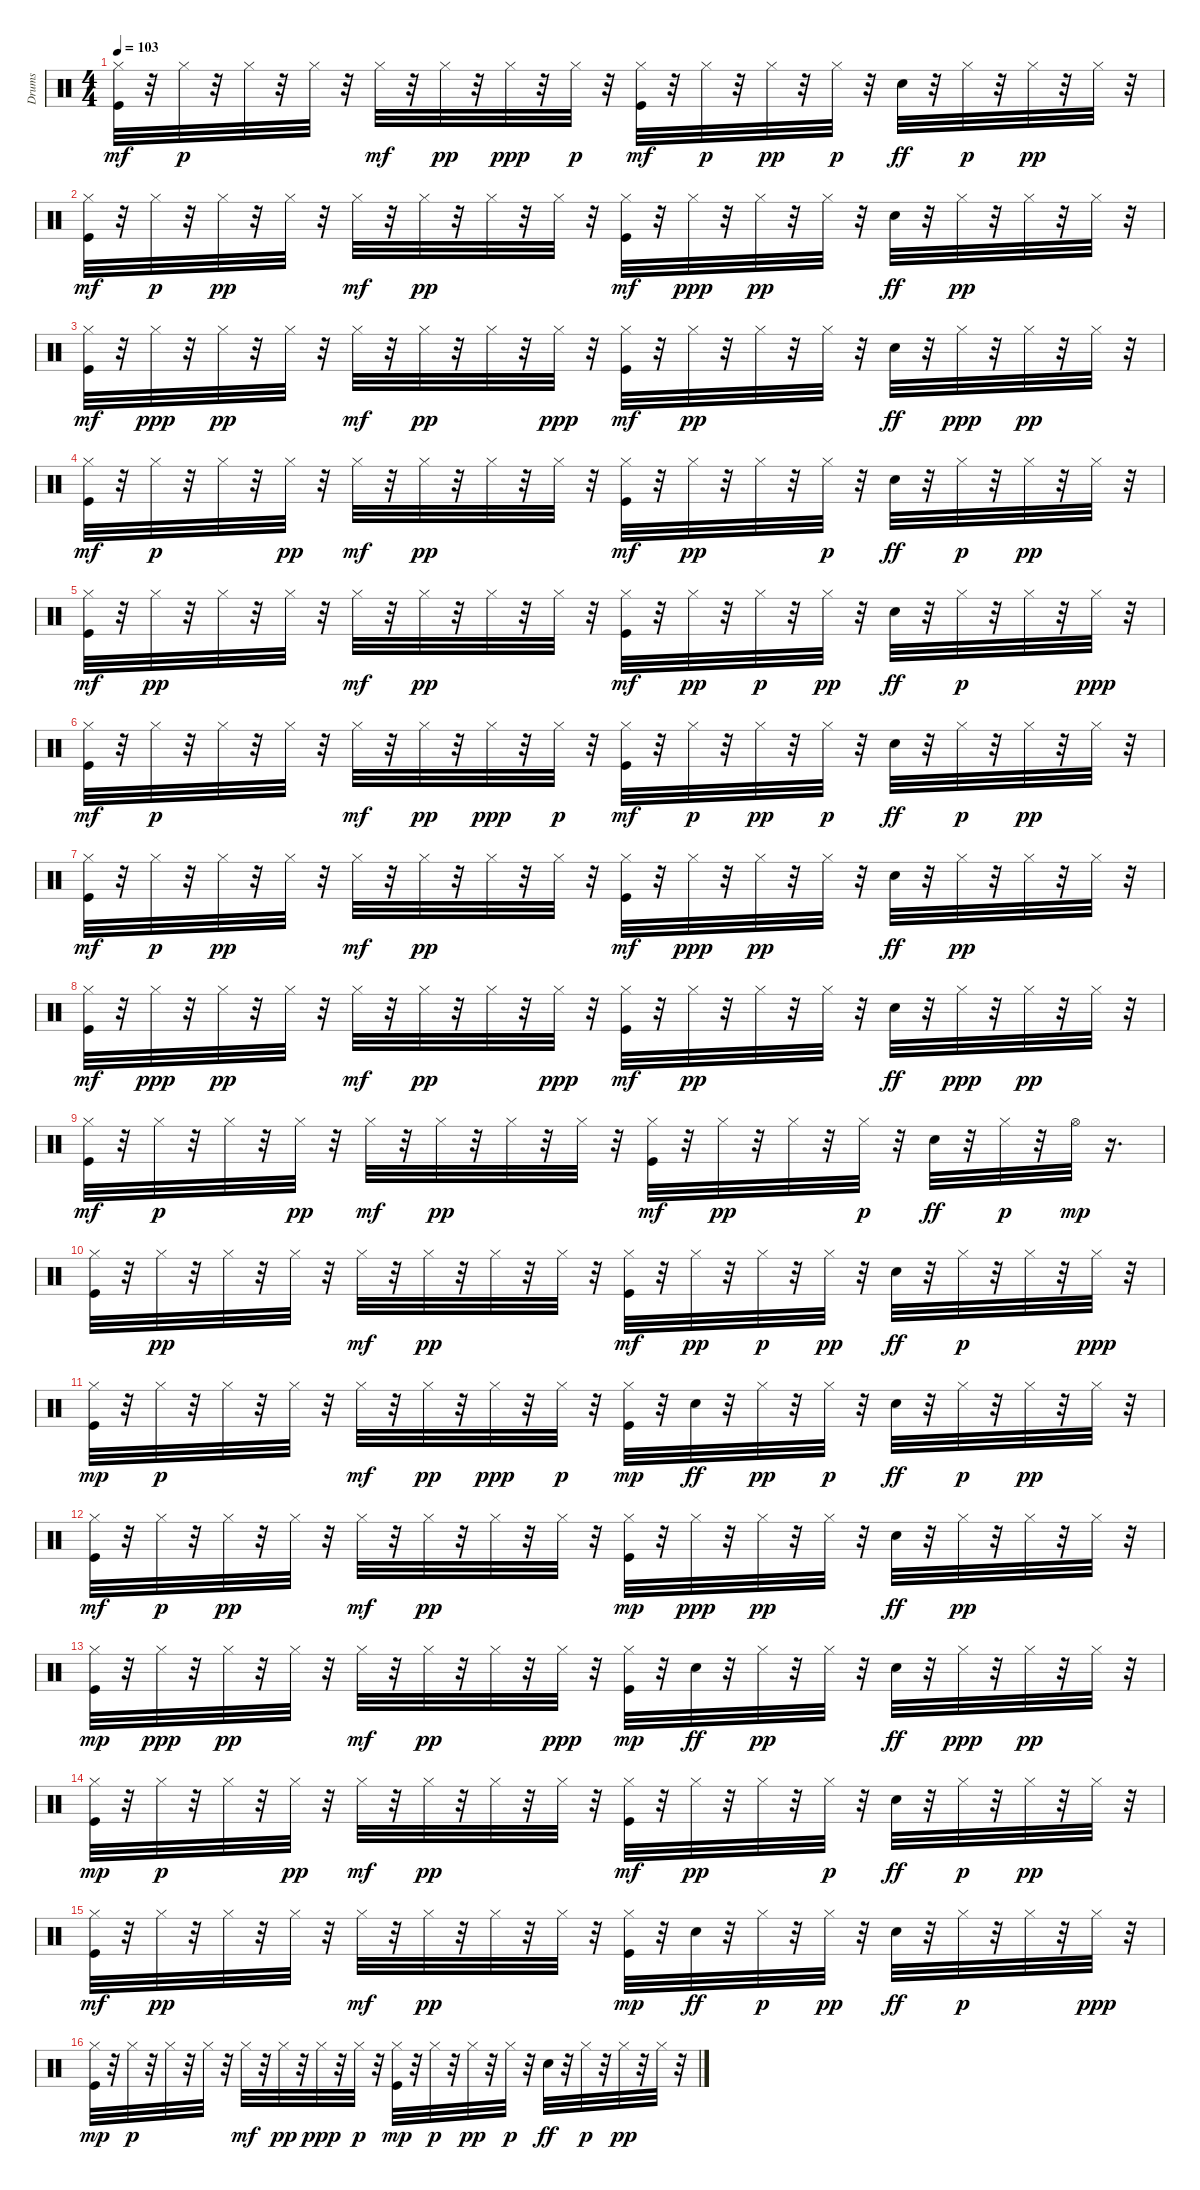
\track ("Drums" "Drums") {instrument percussion}
\staff {score}
\articulation defaults
\ts (4 4)
\tempo 103
\clef neutral
\ks c
("Kick (hit)" "Hi-Hat (closed)").32{dy mf} r.32 "Hi-Hat (closed)".32{dy p} r.32 "Hi-Hat (closed)".32 r.32 "Hi-Hat (closed)".32 r.32 "Hi-Hat (closed)".32{dy mf} r.32 "Hi-Hat (closed)".32{dy pp} r.32 "Hi-Hat (closed)".32{dy ppp} r.32 "Hi-Hat (closed)".32{dy p} r.32 ("Hi-Hat (closed)" "Kick (hit)").32{dy mf} r.32 "Hi-Hat (closed)".32{dy p} r.32 "Hi-Hat (closed)".32{dy pp} r.32 "Hi-Hat (closed)".32{dy p} r.32 "Snare (hit) 2".32{dy ff} r.32 "Hi-Hat (closed)".32{dy p} r.32 "Hi-Hat (closed)".32{dy pp} r.32 "Hi-Hat (closed)".32 r.32 |
("Kick (hit)" "Hi-Hat (closed)").32{dy mf} r.32 "Hi-Hat (closed)".32{dy p} r.32 "Hi-Hat (closed)".32{dy pp} r.32 "Hi-Hat (closed)".32 r.32 "Hi-Hat (closed)".32{dy mf} r.32 "Hi-Hat (closed)".32{dy pp} r.32 "Hi-Hat (closed)".32 r.32 "Hi-Hat (closed)".32 r.32 ("Hi-Hat (closed)" "Kick (hit)").32{dy mf} r.32 "Hi-Hat (closed)".32{dy ppp} r.32 "Hi-Hat (closed)".32{dy pp} r.32 "Hi-Hat (closed)".32 r.32 "Snare (hit) 2".32{dy ff} r.32 "Hi-Hat (closed)".32{dy pp} r.32 "Hi-Hat (closed)".32 r.32 "Hi-Hat (closed)".32 r.32 |
("Hi-Hat (closed)" "Kick (hit)").32{dy mf} r.32 "Hi-Hat (closed)".32{dy ppp} r.32 "Hi-Hat (closed)".32{dy pp} r.32 "Hi-Hat (closed)".32 r.32 "Hi-Hat (closed)".32{dy mf} r.32 "Hi-Hat (closed)".32{dy pp} r.32 "Hi-Hat (closed)".32 r.32 "Hi-Hat (closed)".32{dy ppp} r.32 ("Hi-Hat (closed)" "Kick (hit)").32{dy mf} r.32 "Hi-Hat (closed)".32{dy pp} r.32 "Hi-Hat (closed)".32 r.32 "Hi-Hat (closed)".32 r.32 "Snare (hit) 2".32{dy ff} r.32 "Hi-Hat (closed)".32{dy ppp} r.32 "Hi-Hat (closed)".32{dy pp} r.32 "Hi-Hat (closed)".32 r.32 |
("Kick (hit)" "Hi-Hat (closed)").32{dy mf} r.32 "Hi-Hat (closed)".32{dy p} r.32 "Hi-Hat (closed)".32 r.32 "Hi-Hat (closed)".32{dy pp} r.32 "Hi-Hat (closed)".32{dy mf} r.32 "Hi-Hat (closed)".32{dy pp} r.32 "Hi-Hat (closed)".32 r.32 "Hi-Hat (closed)".32 r.32 ("Kick (hit)" "Hi-Hat (closed)").32{dy mf} r.32 "Hi-Hat (closed)".32{dy pp} r.32 "Hi-Hat (closed)".32 r.32 "Hi-Hat (closed)".32{dy p} r.32 "Snare (hit) 2".32{dy ff} r.32 "Hi-Hat (closed)".32{dy p} r.32 "Hi-Hat (closed)".32{dy pp} r.32 "Hi-Hat (closed)".32 r.32 |
("Hi-Hat (closed)" "Kick (hit)").32{dy mf} r.32 "Hi-Hat (closed)".32{dy pp} r.32 "Hi-Hat (closed)".32 r.32 "Hi-Hat (closed)".32 r.32 "Hi-Hat (closed)".32{dy mf} r.32 "Hi-Hat (closed)".32{dy pp} r.32 "Hi-Hat (closed)".32 r.32 "Hi-Hat (closed)".32 r.32 ("Hi-Hat (closed)" "Kick (hit)").32{dy mf} r.32 "Hi-Hat (closed)".32{dy pp} r.32 "Hi-Hat (closed)".32{dy p} r.32 "Hi-Hat (closed)".32{dy pp} r.32 "Snare (hit) 2".32{dy ff} r.32 "Hi-Hat (closed)".32{dy p} r.32 "Hi-Hat (closed)".32 r.32 "Hi-Hat (closed)".32{dy ppp} r.32 |
("Hi-Hat (closed)" "Kick (hit)").32{dy mf} r.32 "Hi-Hat (closed)".32{dy p} r.32 "Hi-Hat (closed)".32 r.32 "Hi-Hat (closed)".32 r.32 "Hi-Hat (closed)".32{dy mf} r.32 "Hi-Hat (closed)".32{dy pp} r.32 "Hi-Hat (closed)".32{dy ppp} r.32 "Hi-Hat (closed)".32{dy p} r.32 ("Hi-Hat (closed)" "Kick (hit)").32{dy mf} r.32 "Hi-Hat (closed)".32{dy p} r.32 "Hi-Hat (closed)".32{dy pp} r.32 "Hi-Hat (closed)".32{dy p} r.32 "Snare (hit) 2".32{dy ff} r.32 "Hi-Hat (closed)".32{dy p} r.32 "Hi-Hat (closed)".32{dy pp} r.32 "Hi-Hat (closed)".32 r.32 |
("Kick (hit)" "Hi-Hat (closed)").32{dy mf} r.32 "Hi-Hat (closed)".32{dy p} r.32 "Hi-Hat (closed)".32{dy pp} r.32 "Hi-Hat (closed)".32 r.32 "Hi-Hat (closed)".32{dy mf} r.32 "Hi-Hat (closed)".32{dy pp} r.32 "Hi-Hat (closed)".32 r.32 "Hi-Hat (closed)".32 r.32 ("Hi-Hat (closed)" "Kick (hit)").32{dy mf} r.32 "Hi-Hat (closed)".32{dy ppp} r.32 "Hi-Hat (closed)".32{dy pp} r.32 "Hi-Hat (closed)".32 r.32 "Snare (hit) 2".32{dy ff} r.32 "Hi-Hat (closed)".32{dy pp} r.32 "Hi-Hat (closed)".32 r.32 "Hi-Hat (closed)".32 r.32 |
("Hi-Hat (closed)" "Kick (hit)").32{dy mf} r.32 "Hi-Hat (closed)".32{dy ppp} r.32 "Hi-Hat (closed)".32{dy pp} r.32 "Hi-Hat (closed)".32 r.32 "Hi-Hat (closed)".32{dy mf} r.32 "Hi-Hat (closed)".32{dy pp} r.32 "Hi-Hat (closed)".32 r.32 "Hi-Hat (closed)".32{dy ppp} r.32 ("Hi-Hat (closed)" "Kick (hit)").32{dy mf} r.32 "Hi-Hat (closed)".32{dy pp} r.32 "Hi-Hat (closed)".32 r.32 "Hi-Hat (closed)".32 r.32 "Snare (hit) 2".32{dy ff} r.32 "Hi-Hat (closed)".32{dy ppp} r.32 "Hi-Hat (closed)".32{dy pp} r.32 "Hi-Hat (closed)".32 r.32 |
("Hi-Hat (closed)" "Kick (hit)").32{dy mf} r.32 "Hi-Hat (closed)".32{dy p} r.32 "Hi-Hat (closed)".32 r.32 "Hi-Hat (closed)".32{dy pp} r.32 "Hi-Hat (closed)".32{dy mf} r.32 "Hi-Hat (closed)".32{dy pp} r.32 "Hi-Hat (closed)".32 r.32 "Hi-Hat (closed)".32 r.32 ("Hi-Hat (closed)" "Kick (hit)").32{dy mf} r.32 "Hi-Hat (closed)".32{dy pp} r.32 "Hi-Hat (closed)".32 r.32 "Hi-Hat (closed)".32{dy p} r.32 "Snare (hit) 2".32{dy ff} r.32 "Hi-Hat (closed)".32{dy p} r.32 "Hi-Hat (open)".32{dy mp} r.16{d} |
("Hi-Hat (closed)" "Kick (hit)").32 r.32 "Hi-Hat (closed)".32{dy pp} r.32 "Hi-Hat (closed)".32 r.32 "Hi-Hat (closed)".32 r.32 "Hi-Hat (closed)".32{dy mf} r.32 "Hi-Hat (closed)".32{dy pp} r.32 "Hi-Hat (closed)".32 r.32 "Hi-Hat (closed)".32 r.32 ("Hi-Hat (closed)" "Kick (hit)").32{dy mf} r.32 "Hi-Hat (closed)".32{dy pp} r.32 "Hi-Hat (closed)".32{dy p} r.32 "Hi-Hat (closed)".32{dy pp} r.32 "Snare (hit) 2".32{dy ff} r.32 "Hi-Hat (closed)".32{dy p} r.32 "Hi-Hat (closed)".32 r.32 "Hi-Hat (closed)".32{dy ppp} r.32 |
("Hi-Hat (closed)" "Kick (hit)").32{dy mp} r.32 "Hi-Hat (closed)".32{dy p} r.32 "Hi-Hat (closed)".32 r.32 "Hi-Hat (closed)".32 r.32 "Hi-Hat (closed)".32{dy mf} r.32 "Hi-Hat (closed)".32{dy pp} r.32 "Hi-Hat (closed)".32{dy ppp} r.32 "Hi-Hat (closed)".32{dy p} r.32 ("Hi-Hat (closed)" "Kick (hit)").32{dy mp} r.32 "Snare (hit) 2".32{dy ff} r.32 "Hi-Hat (closed)".32{dy pp} r.32 "Hi-Hat (closed)".32{dy p} r.32 "Snare (hit) 2".32{dy ff} r.32 "Hi-Hat (closed)".32{dy p} r.32 "Hi-Hat (closed)".32{dy pp} r.32 "Hi-Hat (closed)".32 r.32 |
("Hi-Hat (closed)" "Kick (hit)").32{dy mf} r.32 "Hi-Hat (closed)".32{dy p} r.32 "Hi-Hat (closed)".32{dy pp} r.32 "Hi-Hat (closed)".32 r.32 "Hi-Hat (closed)".32{dy mf} r.32 "Hi-Hat (closed)".32{dy pp} r.32 "Hi-Hat (closed)".32 r.32 "Hi-Hat (closed)".32 r.32 ("Hi-Hat (closed)" "Kick (hit)").32{dy mp} r.32 "Hi-Hat (closed)".32{dy ppp} r.32 "Hi-Hat (closed)".32{dy pp} r.32 "Hi-Hat (closed)".32 r.32 "Snare (hit) 2".32{dy ff} r.32 "Hi-Hat (closed)".32{dy pp} r.32 "Hi-Hat (closed)".32 r.32 "Hi-Hat (closed)".32 r.32 |
("Hi-Hat (closed)" "Kick (hit)").32{dy mp} r.32 "Hi-Hat (closed)".32{dy ppp} r.32 "Hi-Hat (closed)".32{dy pp} r.32 "Hi-Hat (closed)".32 r.32 "Hi-Hat (closed)".32{dy mf} r.32 "Hi-Hat (closed)".32{dy pp} r.32 "Hi-Hat (closed)".32 r.32 "Hi-Hat (closed)".32{dy ppp} r.32 ("Hi-Hat (closed)" "Kick (hit)").32{dy mp} r.32 "Snare (hit) 2".32{dy ff} r.32 "Hi-Hat (closed)".32{dy pp} r.32 "Hi-Hat (closed)".32 r.32 "Snare (hit) 2".32{dy ff} r.32 "Hi-Hat (closed)".32{dy ppp} r.32 "Hi-Hat (closed)".32{dy pp} r.32 "Hi-Hat (closed)".32 r.32 |
("Hi-Hat (closed)" "Kick (hit)").32{dy mp} r.32 "Hi-Hat (closed)".32{dy p} r.32 "Hi-Hat (closed)".32 r.32 "Hi-Hat (closed)".32{dy pp} r.32 "Hi-Hat (closed)".32{dy mf} r.32 "Hi-Hat (closed)".32{dy pp} r.32 "Hi-Hat (closed)".32 r.32 "Hi-Hat (closed)".32 r.32 ("Hi-Hat (closed)" "Kick (hit)").32{dy mf} r.32 "Hi-Hat (closed)".32{dy pp} r.32 "Hi-Hat (closed)".32 r.32 "Hi-Hat (closed)".32{dy p} r.32 "Snare (hit) 2".32{dy ff} r.32 "Hi-Hat (closed)".32{dy p} r.32 "Hi-Hat (closed)".32{dy pp} r.32 "Hi-Hat (closed)".32 r.32 |
("Kick (hit)" "Hi-Hat (closed)").32{dy mf} r.32 "Hi-Hat (closed)".32{dy pp} r.32 "Hi-Hat (closed)".32 r.32 "Hi-Hat (closed)".32 r.32 "Hi-Hat (closed)".32{dy mf} r.32 "Hi-Hat (closed)".32{dy pp} r.32 "Hi-Hat (closed)".32 r.32 "Hi-Hat (closed)".32 r.32 ("Hi-Hat (closed)" "Kick (hit)").32{dy mp} r.32 "Snare (hit) 2".32{dy ff} r.32 "Hi-Hat (closed)".32{dy p} r.32 "Hi-Hat (closed)".32{dy pp} r.32 "Snare (hit) 2".32{dy ff} r.32 "Hi-Hat (closed)".32{dy p} r.32 "Hi-Hat (closed)".32 r.32 "Hi-Hat (closed)".32{dy ppp} r.32 |
("Hi-Hat (closed)" "Kick (hit)").32{dy mp} r.32 "Hi-Hat (closed)".32{dy p} r.32 "Hi-Hat (closed)".32 r.32 "Hi-Hat (closed)".32 r.32 "Hi-Hat (closed)".32{dy mf} r.32 "Hi-Hat (closed)".32{dy pp} r.32 "Hi-Hat (closed)".32{dy ppp} r.32 "Hi-Hat (closed)".32{dy p} r.32 ("Hi-Hat (closed)" "Kick (hit)").32{dy mp} r.32 "Hi-Hat (closed)".32{dy p} r.32 "Hi-Hat (closed)".32{dy pp} r.32 "Hi-Hat (closed)".32{dy p} r.32 "Snare (hit) 2".32{dy ff} r.32 "Hi-Hat (closed)".32{dy p} r.32 "Hi-Hat (closed)".32{dy pp} r.32 "Hi-Hat (closed)".32 r.32
